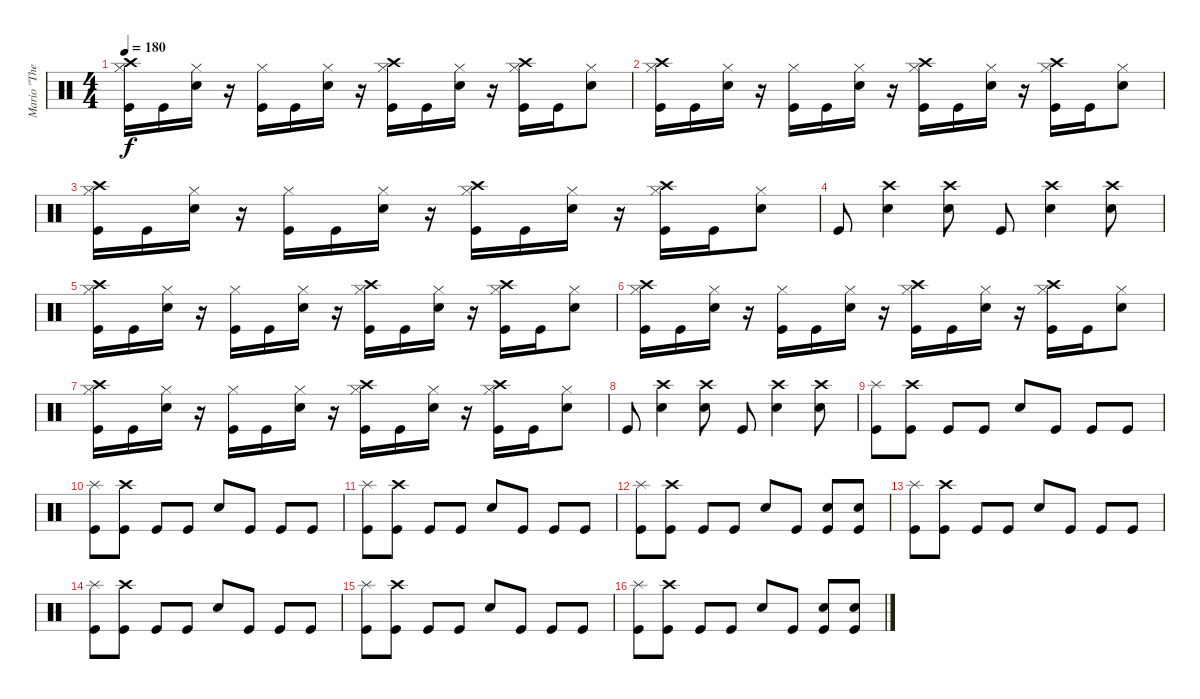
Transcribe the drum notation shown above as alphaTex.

\track ("Mario \"The dremmel\" Hirt" "Mario \"The") {instrument percussion}
\staff {score}
\articulation defaults
\ts (4 4)
\tempo 180
\clef neutral
\ks c
("Crash high (hit)" "Hi-Hat (closed)" "Kick (hit)").16{dy f} "Kick (hit)".16 ("Hi-Hat (closed)" "Electric Snare (hit)").16 r.16 ("Hi-Hat (closed)" "Kick (hit)").16 "Kick (hit)".16 ("Hi-Hat (closed)" "Electric Snare (hit)").16 r.16 ("Crash high (hit)" "Hi-Hat (closed)" "Kick (hit)").16 "Kick (hit)".16 ("Hi-Hat (closed)" "Electric Snare (hit)").16 r.16 ("Crash high (hit)" "Hi-Hat (closed)" "Kick (hit)").16 "Kick (hit)".16 ("Hi-Hat (closed)" "Electric Snare (hit)").8 |
("Crash high (hit)" "Hi-Hat (closed)" "Kick (hit)").16 "Kick (hit)".16 ("Hi-Hat (closed)" "Electric Snare (hit)").16 r.16 ("Hi-Hat (closed)" "Kick (hit)").16 "Kick (hit)".16 ("Hi-Hat (closed)" "Electric Snare (hit)").16 r.16 ("Crash high (hit)" "Hi-Hat (closed)" "Kick (hit)").16 "Kick (hit)".16 ("Hi-Hat (closed)" "Electric Snare (hit)").16 r.16 ("Crash high (hit)" "Hi-Hat (closed)" "Kick (hit)").16 "Kick (hit)".16 ("Hi-Hat (closed)" "Electric Snare (hit)").8 |
("Crash high (hit)" "Hi-Hat (closed)" "Kick (hit)").16 "Kick (hit)".16 ("Hi-Hat (closed)" "Electric Snare (hit)").16 r.16 ("Hi-Hat (closed)" "Kick (hit)").16 "Kick (hit)".16 ("Hi-Hat (closed)" "Electric Snare (hit)").16 r.16 ("Crash high (hit)" "Hi-Hat (closed)" "Kick (hit)").16 "Kick (hit)".16 ("Hi-Hat (closed)" "Electric Snare (hit)").16 r.16 ("Crash high (hit)" "Hi-Hat (closed)" "Kick (hit)").16 "Kick (hit)".16 ("Hi-Hat (closed)" "Electric Snare (hit)").8 |
"Kick (hit)".8 ("Electric Snare (hit)" "Crash high (hit)").4 ("Electric Snare (hit)" "Crash high (hit)").8 "Kick (hit)".8 ("Electric Snare (hit)" "Crash high (hit)").4 ("Electric Snare (hit)" "Crash high (hit)").8 |
("Crash high (hit)" "Hi-Hat (closed)" "Kick (hit)").16 "Kick (hit)".16 ("Hi-Hat (closed)" "Electric Snare (hit)").16 r.16 ("Hi-Hat (closed)" "Kick (hit)").16 "Kick (hit)".16 ("Hi-Hat (closed)" "Electric Snare (hit)").16 r.16 ("Crash high (hit)" "Hi-Hat (closed)" "Kick (hit)").16 "Kick (hit)".16 ("Hi-Hat (closed)" "Electric Snare (hit)").16 r.16 ("Crash high (hit)" "Hi-Hat (closed)" "Kick (hit)").16 "Kick (hit)".16 ("Hi-Hat (closed)" "Electric Snare (hit)").8 |
("Crash high (hit)" "Hi-Hat (closed)" "Kick (hit)").16 "Kick (hit)".16 ("Hi-Hat (closed)" "Electric Snare (hit)").16 r.16 ("Hi-Hat (closed)" "Kick (hit)").16 "Kick (hit)".16 ("Hi-Hat (closed)" "Electric Snare (hit)").16 r.16 ("Crash high (hit)" "Hi-Hat (closed)" "Kick (hit)").16 "Kick (hit)".16 ("Hi-Hat (closed)" "Electric Snare (hit)").16 r.16 ("Crash high (hit)" "Hi-Hat (closed)" "Kick (hit)").16 "Kick (hit)".16 ("Hi-Hat (closed)" "Electric Snare (hit)").8 |
("Crash high (hit)" "Hi-Hat (closed)" "Kick (hit)").16 "Kick (hit)".16 ("Hi-Hat (closed)" "Electric Snare (hit)").16 r.16 ("Hi-Hat (closed)" "Kick (hit)").16 "Kick (hit)".16 ("Hi-Hat (closed)" "Electric Snare (hit)").16 r.16 ("Crash high (hit)" "Hi-Hat (closed)" "Kick (hit)").16 "Kick (hit)".16 ("Hi-Hat (closed)" "Electric Snare (hit)").16 r.16 ("Crash high (hit)" "Hi-Hat (closed)" "Kick (hit)").16 "Kick (hit)".16 ("Hi-Hat (closed)" "Electric Snare (hit)").8 |
"Kick (hit)".8 ("Electric Snare (hit)" "Crash high (hit)").4 ("Electric Snare (hit)" "Crash high (hit)").8 "Kick (hit)".8 ("Electric Snare (hit)" "Crash high (hit)").4 ("Electric Snare (hit)" "Crash high (hit)").8 |
("Splash (hit)" "Kick (hit)").8 ("Crash high (hit)" "Kick (hit)").8 "Kick (hit)".8 "Kick (hit)".8 "Electric Snare (hit)".8 "Kick (hit)".8 "Kick (hit)".8 "Kick (hit)".8 |
("Splash (hit)" "Kick (hit)").8 ("Crash high (hit)" "Kick (hit)").8 "Kick (hit)".8 "Kick (hit)".8 "Electric Snare (hit)".8 "Kick (hit)".8 "Kick (hit)".8 "Kick (hit)".8 |
("Splash (hit)" "Kick (hit)").8 ("Crash high (hit)" "Kick (hit)").8 "Kick (hit)".8 "Kick (hit)".8 "Electric Snare (hit)".8 "Kick (hit)".8 "Kick (hit)".8 "Kick (hit)".8 |
("Splash (hit)" "Kick (hit)").8 ("Crash high (hit)" "Kick (hit)").8 "Kick (hit)".8 "Kick (hit)".8 "Electric Snare (hit)".8 "Kick (hit)".8 ("Electric Snare (hit)" "Kick (hit)").8 ("Electric Snare (hit)" "Kick (hit)").8 |
("Splash (hit)" "Kick (hit)").8 ("Crash high (hit)" "Kick (hit)").8 "Kick (hit)".8 "Kick (hit)".8 "Electric Snare (hit)".8 "Kick (hit)".8 "Kick (hit)".8 "Kick (hit)".8 |
("Splash (hit)" "Kick (hit)").8 ("Crash high (hit)" "Kick (hit)").8 "Kick (hit)".8 "Kick (hit)".8 "Electric Snare (hit)".8 "Kick (hit)".8 "Kick (hit)".8 "Kick (hit)".8 |
("Splash (hit)" "Kick (hit)").8 ("Crash high (hit)" "Kick (hit)").8 "Kick (hit)".8 "Kick (hit)".8 "Electric Snare (hit)".8 "Kick (hit)".8 "Kick (hit)".8 "Kick (hit)".8 |
("Splash (hit)" "Kick (hit)").8 ("Crash high (hit)" "Kick (hit)").8 "Kick (hit)".8 "Kick (hit)".8 "Electric Snare (hit)".8 "Kick (hit)".8 ("Electric Snare (hit)" "Kick (hit)").8 ("Electric Snare (hit)" "Kick (hit)").8
